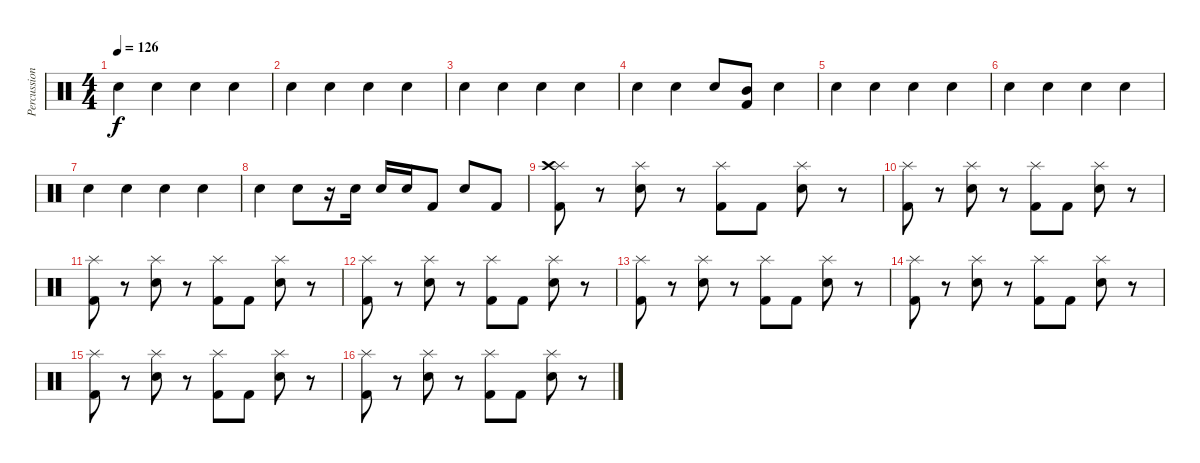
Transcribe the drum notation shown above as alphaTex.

\track ("Percussion" "Percussion") {instrument percussion}
\staff {score}
\articulation defaults
\ts (4 4)
\tempo 126
\clef neutral
\ks c "Electric Snare (hit)".4{dy f} "Electric Snare (hit)".4 "Electric Snare (hit)".4 "Electric Snare (hit)".4
|
"Electric Snare (hit)".4 "Electric Snare (hit)".4 "Electric Snare (hit)".4 "Electric Snare (hit)".4 |
"Electric Snare (hit)".4 "Electric Snare (hit)".4 "Electric Snare (hit)".4 "Electric Snare (hit)".4 |
"Electric Snare (hit)".4 "Electric Snare (hit)".4 "Electric Snare (hit)".8 ("Kick (hit) 2" "Mid Tom (hit)").8 "Electric Snare (hit)".4 |
"Electric Snare (hit)".4 "Electric Snare (hit)".4 "Electric Snare (hit)".4 "Electric Snare (hit)".4 |
"Electric Snare (hit)".4 "Electric Snare (hit)".4 "Electric Snare (hit)".4 "Electric Snare (hit)".4 |
"Electric Snare (hit)".4 "Electric Snare (hit)".4 "Electric Snare (hit)".4 "Electric Snare (hit)".4 |
"Electric Snare (hit)".4 "Electric Snare (hit)".8 r.16 "Electric Snare (hit)".16 "Electric Snare (hit)".16 "Electric Snare (hit)".16 "Kick (hit) 2".8 "Electric Snare (hit)".8 "Kick (hit) 2".8 |
("Splash (hit)" "Kick (hit) 2" "Crash high (hit)").8 r.8 ("Splash (hit)" "Electric Snare (hit)").8 r.8 ("Splash (hit)" "Kick (hit) 2").8 "Kick (hit) 2".8 ("Splash (hit)" "Electric Snare (hit)").8 r.8 |
("Splash (hit)" "Kick (hit) 2").8 r.8 ("Splash (hit)" "Electric Snare (hit)").8 r.8 ("Splash (hit)" "Kick (hit) 2").8 "Kick (hit) 2".8 ("Splash (hit)" "Electric Snare (hit)").8 r.8 |
("Splash (hit)" "Kick (hit) 2").8 r.8 ("Splash (hit)" "Electric Snare (hit)").8 r.8 ("Splash (hit)" "Kick (hit) 2").8 "Kick (hit) 2".8 ("Splash (hit)" "Electric Snare (hit)").8 r.8 |
("Splash (hit)" "Kick (hit) 2").8 r.8 ("Splash (hit)" "Electric Snare (hit)").8 r.8 ("Splash (hit)" "Kick (hit) 2").8 "Kick (hit) 2".8 ("Splash (hit)" "Electric Snare (hit)").8 r.8 |
("Splash (hit)" "Kick (hit) 2").8 r.8 ("Splash (hit)" "Electric Snare (hit)").8 r.8 ("Splash (hit)" "Kick (hit) 2").8 "Kick (hit) 2".8 ("Splash (hit)" "Electric Snare (hit)").8 r.8 |
("Splash (hit)" "Kick (hit) 2").8 r.8 ("Splash (hit)" "Electric Snare (hit)").8 r.8 ("Splash (hit)" "Kick (hit) 2").8 "Kick (hit) 2".8 ("Splash (hit)" "Electric Snare (hit)").8 r.8 |
("Splash (hit)" "Kick (hit) 2").8 r.8 ("Splash (hit)" "Electric Snare (hit)").8 r.8 ("Splash (hit)" "Kick (hit) 2").8 "Kick (hit) 2".8 ("Splash (hit)" "Electric Snare (hit)").8 r.8 |
("Splash (hit)" "Kick (hit) 2").8 r.8 ("Splash (hit)" "Electric Snare (hit)").8 r.8 ("Splash (hit)" "Kick (hit) 2").8 "Kick (hit) 2".8 ("Splash (hit)" "Electric Snare (hit)").8 r.8
